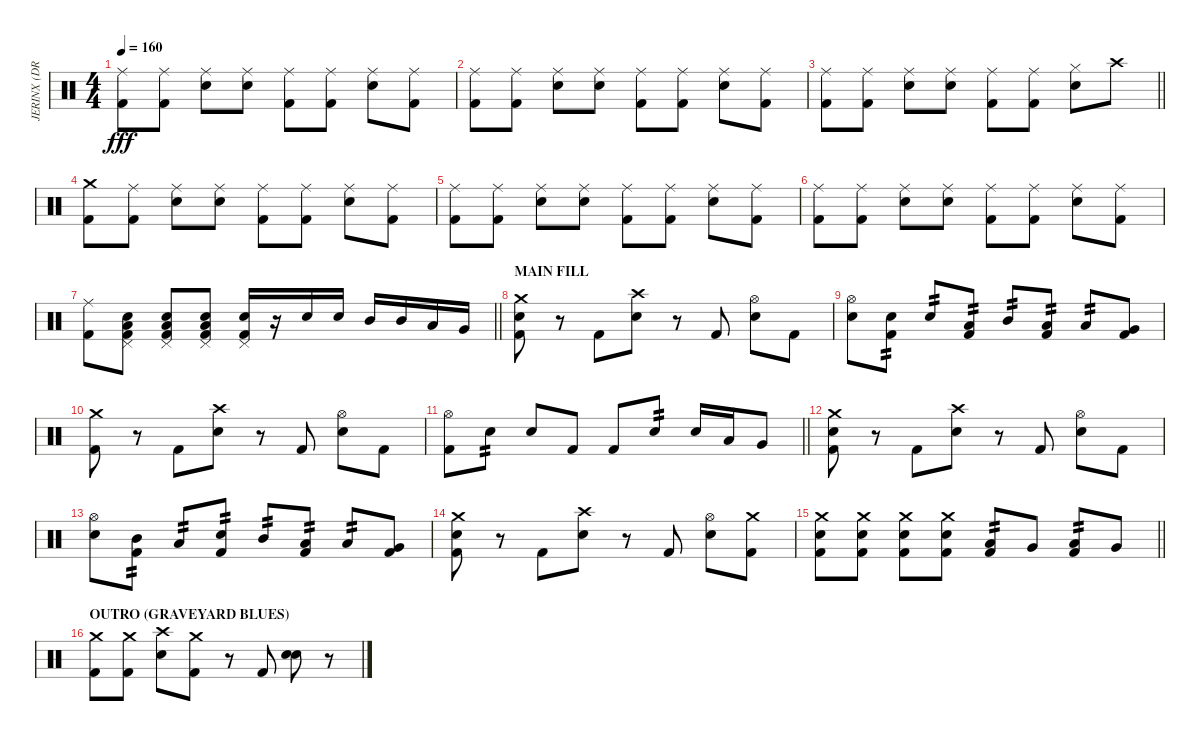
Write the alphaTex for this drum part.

\track ("JERINX (DRUM)" "JERINX (DR") {instrument percussion}
\staff {score}
\articulation defaults
\ts (4 4)
\tempo 160
\clef neutral
\ks c
("Kick (hit) 2" "Ride (middle)").8{dy fff} ("Kick (hit) 2" "Ride (middle)").8 ("Snare (hit) 2" "Ride (middle)").8 ("Snare (hit) 2" "Ride (middle)").8 ("Kick (hit) 2" "Ride (middle)").8 ("Kick (hit) 2" "Ride (middle)").8 ("Snare (hit) 2" "Ride (middle)").8 ("Kick (hit) 2" "Ride (middle)").8 |
("Kick (hit) 2" "Ride (middle)").8 ("Kick (hit) 2" "Ride (middle)").8 ("Snare (hit) 2" "Ride (middle)").8 ("Snare (hit) 2" "Ride (middle)").8 ("Kick (hit) 2" "Ride (middle)").8 ("Kick (hit) 2" "Ride (middle)").8 ("Snare (hit) 2" "Ride (middle)").8 ("Kick (hit) 2" "Ride (middle)").8 |
\barLineRight lightlight
("Kick (hit) 2" "Ride (middle)").8 ("Kick (hit) 2" "Ride (middle)").8 ("Snare (hit) 2" "Ride (middle)").8 ("Snare (hit) 2" "Ride (middle)").8 ("Kick (hit) 2" "Ride (middle)").8 ("Kick (hit) 2" "Ride (middle)").8 ("Hi-Hat (closed)" "Snare (hit) 2").8 "Crash high (hit)".8 |
("Kick (hit) 2" "Crash medium (hit)").8 ("Kick (hit) 2" "Ride (middle)").8 ("Snare (hit) 2" "Ride (middle)").8 ("Snare (hit) 2" "Ride (middle)").8 ("Kick (hit) 2" "Ride (middle)").8 ("Kick (hit) 2" "Ride (middle)").8 ("Snare (hit) 2" "Ride (middle)").8 ("Kick (hit) 2" "Ride (middle)").8 |
("Kick (hit) 2" "Ride (middle)").8 ("Kick (hit) 2" "Ride (middle)").8 ("Snare (hit) 2" "Ride (middle)").8 ("Snare (hit) 2" "Ride (middle)").8 ("Kick (hit) 2" "Ride (middle)").8 ("Kick (hit) 2" "Ride (middle)").8 ("Snare (hit) 2" "Ride (middle)").8 ("Kick (hit) 2" "Ride (middle)").8 |
("Kick (hit) 2" "Ride (middle)").8 ("Kick (hit) 2" "Ride (middle)").8 ("Snare (hit) 2" "Ride (middle)").8 ("Snare (hit) 2" "Ride (middle)").8 ("Kick (hit) 2" "Ride (middle)").8 ("Kick (hit) 2" "Ride (middle)").8 ("Snare (hit) 2" "Ride (middle)").8 ("Kick (hit) 2" "Ride (middle)").8 |
\barLineRight lightlight
("Kick (hit) 2" "Ride (middle)").8 ("Pedal Hi-Hat (hit)" "Snare (hit) 2" "Kick (hit) 2" "Low Floor Tom (hit)").8 ("Pedal Hi-Hat (hit)" "Snare (hit) 2" "Kick (hit) 2" "Low Floor Tom (hit)").8 ("Pedal Hi-Hat (hit)" "Snare (hit) 2" "Kick (hit) 2" "Low Floor Tom (hit)").8 ("Pedal Hi-Hat (hit)" "Snare (hit) 2" "Kick (hit) 2").16 r.16 "Snare (hit) 2".16 "Snare (hit) 2".16 "Mid Tom (hit)".16 "Mid Tom (hit)".16 "Low Tom (hit)".16 "Very Low Tom (hit)".16 |
\section ("" "MAIN FILL")
("Snare (hit) 2" "Kick (hit) 2" "Crash medium (hit)").8 r.8 "Kick (hit) 2".8 ("Snare (hit) 2" "Crash high (hit)").8 r.8 "Kick (hit) 2".8 ("Hi-Hat (open)" "Snare (hit) 2").8 "Kick (hit) 2".8 |
("Hi-Hat (open)" "Snare (hit) 2").8 ("Snare (hit) 2" "Kick (hit) 2").8{tp 2} "Snare (hit) 2".8{tp 2} ("Kick (hit) 2" "Low Tom (hit)").8{tp 2} "Mid Tom (hit)".8{tp 2} ("Kick (hit) 2" "Low Tom (hit)").8{tp 2} "Low Tom (hit)".8{tp 2} ("Kick (hit) 2" "Very Low Tom (hit)").8 |
("Kick (hit) 2" "Crash medium (hit)").8 r.8 "Kick (hit) 2".8 ("Snare (hit) 2" "Crash high (hit)").8 r.8 "Kick (hit) 2".8 ("Hi-Hat (open)" "Snare (hit) 2").8 "Kick (hit) 2".8 |
\barLineRight lightlight
("Hi-Hat (open)" "Kick (hit) 2").8 "Snare (hit) 2".8{tp 2} "Snare (hit) 2".8 "Kick (hit) 2".8 "Kick (hit) 2".8 "Snare (hit) 2".8{tp 2} "Snare (hit) 2".16 "Low Tom (hit)".16 "Very Low Tom (hit)".8 |
("Snare (hit) 2" "Kick (hit) 2" "Crash medium (hit)").8 r.8 "Kick (hit) 2".8 ("Snare (hit) 2" "Crash high (hit)").8 r.8 "Kick (hit) 2".8 ("Hi-Hat (open)" "Snare (hit) 2").8 "Kick (hit) 2".8 |
("Hi-Hat (open)" "Snare (hit) 2").8 ("Mid Tom (hit)" "Kick (hit) 2").8{tp 2} "Low Tom (hit)".8{tp 2} ("Snare (hit) 2" "Kick (hit) 2").8{tp 2} "Mid Tom (hit)".8{tp 2} ("Kick (hit) 2" "Low Tom (hit)").8{tp 2} "Low Tom (hit)".8{tp 2} ("Kick (hit) 2" "Very Low Tom (hit)").8 |
("Snare (hit) 2" "Kick (hit) 2" "Crash medium (hit)").8 r.8 "Kick (hit) 2".8 ("Snare (hit) 2" "Crash high (hit)").8 r.8 "Kick (hit) 2".8 ("Hi-Hat (open)" "Snare (hit) 2").8 ("Kick (hit) 2" "Crash medium (hit)").8 |
\barLineRight lightlight
("Snare (hit) 2" "Kick (hit) 2" "Crash medium (hit)").8 ("Snare (hit) 2" "Kick (hit) 2" "Crash medium (hit)").8 ("Snare (hit) 2" "Kick (hit) 2" "Crash medium (hit)").8 ("Snare (hit) 2" "Kick (hit) 2" "Crash medium (hit)").8 ("Kick (hit) 2" "Low Tom (hit)").8{tp 2} "Very Low Tom (hit)".8 ("Kick (hit) 2" "Low Tom (hit)").8{tp 2} "Very Low Tom (hit)".8 |
\section ("" "OUTRO (GRAVEYARD BLUES)")
("Kick (hit) 2" "Crash medium (hit)").8 ("Kick (hit) 2" "Crash medium (hit)").8 ("Snare (hit) 2" "Crash high (hit)").8 ("Kick (hit) 2" "Crash medium (hit)").8 r.8 "Kick (hit) 2".8 ("Snare (hit) 2" "Snare (hit) 2").8{bu 240} r.8
